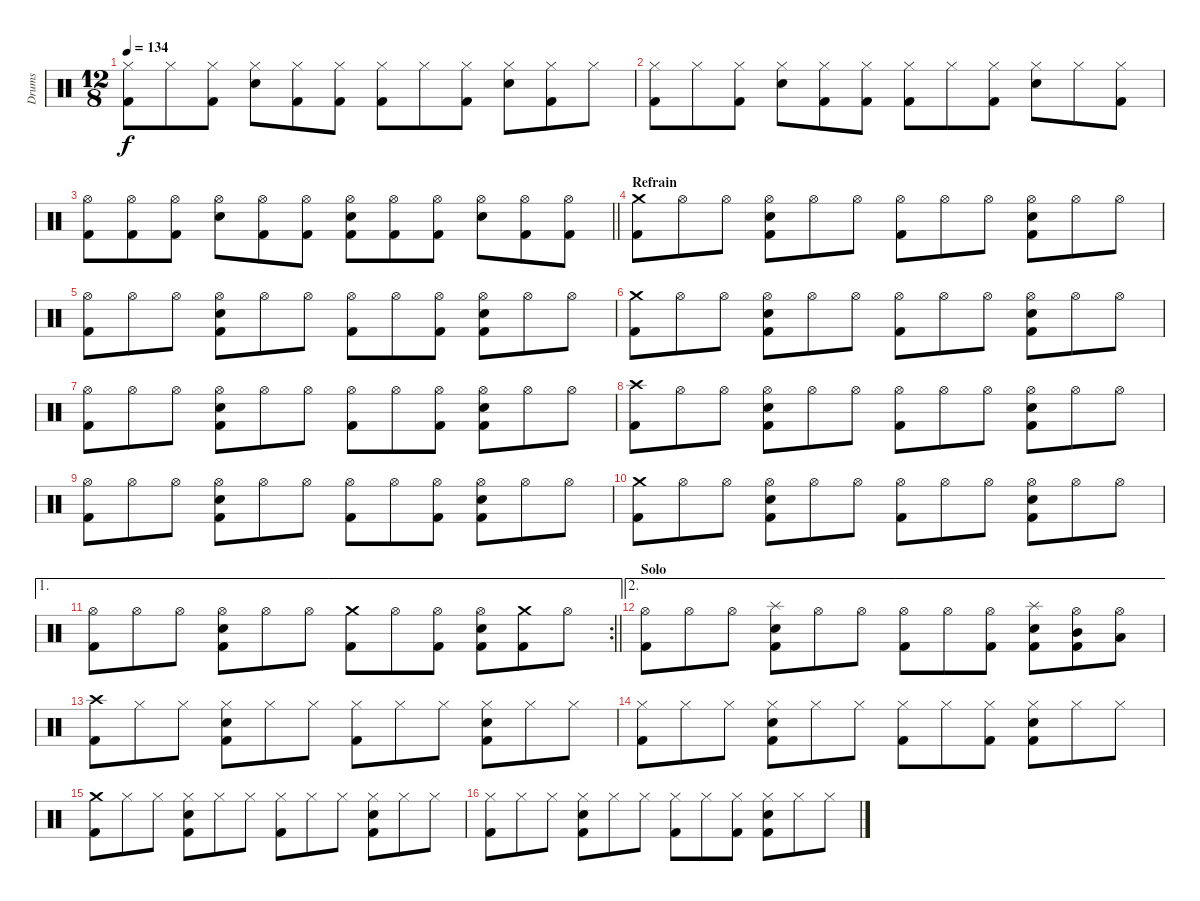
\track ("Drums" "Drums") {instrument percussion}
\staff {score}
\articulation defaults
\ts (12 8)
\tempo 134
\clef neutral
\ks c
("Hi-Hat (closed)" "Kick (hit) 2").8{dy f} "Hi-Hat (closed)".8 ("Hi-Hat (closed)" "Kick (hit) 2").8 ("Hi-Hat (closed)" "Snare (hit) 2").8 ("Hi-Hat (closed)" "Kick (hit) 2").8 ("Hi-Hat (closed)" "Kick (hit) 2").8 ("Hi-Hat (closed)" "Kick (hit) 2").8 "Hi-Hat (closed)".8 ("Hi-Hat (closed)" "Kick (hit) 2").8 ("Hi-Hat (closed)" "Snare (hit) 2").8 ("Hi-Hat (closed)" "Kick (hit) 2").8 "Hi-Hat (closed)".8 |
("Hi-Hat (closed)" "Kick (hit) 2").8 "Hi-Hat (closed)".8 ("Hi-Hat (closed)" "Kick (hit) 2").8 ("Hi-Hat (closed)" "Snare (hit) 2").8 ("Hi-Hat (closed)" "Kick (hit) 2").8 ("Hi-Hat (closed)" "Kick (hit) 2").8 ("Hi-Hat (closed)" "Kick (hit) 2").8 "Hi-Hat (closed)".8 ("Hi-Hat (closed)" "Kick (hit) 2").8 ("Hi-Hat (closed)" "Snare (hit) 2").8 "Hi-Hat (closed)".8 ("Hi-Hat (closed)" "Kick (hit) 2").8 |
\barLineRight lightlight
("Hi-Hat (open)" "Kick (hit) 2").8 ("Hi-Hat (open)" "Kick (hit) 2").8 ("Hi-Hat (open)" "Kick (hit) 2").8 ("Hi-Hat (open)" "Snare (hit) 2").8 ("Hi-Hat (open)" "Kick (hit) 2").8 ("Hi-Hat (open)" "Kick (hit) 2").8 ("Hi-Hat (open)" "Snare (hit) 2" "Kick (hit) 2").8 ("Hi-Hat (open)" "Kick (hit) 2").8 ("Hi-Hat (open)" "Kick (hit) 2").8 ("Hi-Hat (open)" "Snare (hit) 2").8 ("Hi-Hat (open)" "Kick (hit) 2").8 ("Hi-Hat (open)" "Kick (hit) 2").8 |
\section ("" "Refrain")
("Crash medium (hit)" "Kick (hit) 2").8 "Hi-Hat (open)".8 "Hi-Hat (open)".8 ("Hi-Hat (open)" "Snare (hit) 2" "Kick (hit) 2").8 "Hi-Hat (open)".8 "Hi-Hat (open)".8 ("Hi-Hat (open)" "Kick (hit) 2").8 "Hi-Hat (open)".8 "Hi-Hat (open)".8 ("Hi-Hat (open)" "Snare (hit) 2" "Kick (hit) 2").8 "Hi-Hat (open)".8 "Hi-Hat (open)".8 |
("Hi-Hat (open)" "Kick (hit) 2").8 "Hi-Hat (open)".8 "Hi-Hat (open)".8 ("Hi-Hat (open)" "Snare (hit) 2" "Kick (hit) 2").8 "Hi-Hat (open)".8 "Hi-Hat (open)".8 ("Hi-Hat (open)" "Kick (hit) 2").8 "Hi-Hat (open)".8 ("Hi-Hat (open)" "Kick (hit) 2").8 ("Hi-Hat (open)" "Snare (hit) 2" "Kick (hit) 2").8 "Hi-Hat (open)".8 "Hi-Hat (open)".8 |
("Crash medium (hit)" "Kick (hit) 2").8 "Hi-Hat (open)".8 "Hi-Hat (open)".8 ("Hi-Hat (open)" "Snare (hit) 2" "Kick (hit) 2").8 "Hi-Hat (open)".8 "Hi-Hat (open)".8 ("Hi-Hat (open)" "Kick (hit) 2").8 "Hi-Hat (open)".8 "Hi-Hat (open)".8 ("Hi-Hat (open)" "Snare (hit) 2" "Kick (hit) 2").8 "Hi-Hat (open)".8 "Hi-Hat (open)".8 |
("Hi-Hat (open)" "Kick (hit) 2").8 "Hi-Hat (open)".8 "Hi-Hat (open)".8 ("Hi-Hat (open)" "Snare (hit) 2" "Kick (hit) 2").8 "Hi-Hat (open)".8 "Hi-Hat (open)".8 ("Hi-Hat (open)" "Kick (hit) 2").8 "Hi-Hat (open)".8 ("Hi-Hat (open)" "Kick (hit) 2").8 ("Hi-Hat (open)" "Snare (hit) 2" "Kick (hit) 2").8 "Hi-Hat (open)".8 "Hi-Hat (open)".8 |
("Crash high (hit)" "Kick (hit) 2").8 "Hi-Hat (open)".8 "Hi-Hat (open)".8 ("Hi-Hat (open)" "Snare (hit) 2" "Kick (hit) 2").8 "Hi-Hat (open)".8 "Hi-Hat (open)".8 ("Hi-Hat (open)" "Kick (hit) 2").8 "Hi-Hat (open)".8 "Hi-Hat (open)".8 ("Hi-Hat (open)" "Snare (hit) 2" "Kick (hit) 2").8 "Hi-Hat (open)".8 "Hi-Hat (open)".8 |
("Hi-Hat (open)" "Kick (hit) 2").8 "Hi-Hat (open)".8 "Hi-Hat (open)".8 ("Hi-Hat (open)" "Snare (hit) 2" "Kick (hit) 2").8 "Hi-Hat (open)".8 "Hi-Hat (open)".8 ("Hi-Hat (open)" "Kick (hit) 2").8 "Hi-Hat (open)".8 ("Hi-Hat (open)" "Kick (hit) 2").8 ("Hi-Hat (open)" "Snare (hit) 2" "Kick (hit) 2").8 "Hi-Hat (open)".8 "Hi-Hat (open)".8 |
("Crash medium (hit)" "Kick (hit) 2").8 "Hi-Hat (open)".8 "Hi-Hat (open)".8 ("Hi-Hat (open)" "Snare (hit) 2" "Kick (hit) 2").8 "Hi-Hat (open)".8 "Hi-Hat (open)".8 ("Hi-Hat (open)" "Kick (hit) 2").8 "Hi-Hat (open)".8 "Hi-Hat (open)".8 ("Hi-Hat (open)" "Snare (hit) 2" "Kick (hit) 2").8 "Hi-Hat (open)".8 "Hi-Hat (open)".8 |
\ae 1
\rc 2
\barLineRight lightlight
("Hi-Hat (open)" "Kick (hit) 2").8 "Hi-Hat (open)".8 "Hi-Hat (open)".8 ("Hi-Hat (open)" "Snare (hit) 2" "Kick (hit) 2").8 "Hi-Hat (open)".8 "Hi-Hat (open)".8 ("Crash medium (hit)" "Kick (hit) 2").8 "Hi-Hat (open)".8 ("Hi-Hat (open)" "Kick (hit) 2").8 ("Hi-Hat (open)" "Snare (hit) 2" "Kick (hit) 2").8 ("Crash medium (hit)" "Kick (hit) 2").8 "Hi-Hat (open)".8 |
\ae 2
\section ("" "Solo")
("Hi-Hat (open)" "Kick (hit) 2").8 "Hi-Hat (open)".8 "Hi-Hat (open)".8 ("Splash (hit)" "Snare (hit) 2" "Kick (hit) 2").8 "Hi-Hat (open)".8 "Hi-Hat (open)".8 ("Hi-Hat (open)" "Kick (hit) 2").8 "Hi-Hat (open)".8 ("Hi-Hat (open)" "Kick (hit) 2").8 ("Splash (hit)" "Snare (hit) 2" "Kick (hit) 2").8 ("Hi-Hat (open)" "Mid Tom (hit)" "Kick (hit) 2").8 ("Hi-Hat (open)" "Low Tom (hit)").8 |
("Crash high (hit)" "Kick (hit) 2").8 "Hi-Hat (closed)".8 "Hi-Hat (closed)".8 ("Hi-Hat (closed)" "Snare (hit) 2" "Kick (hit) 2").8 "Hi-Hat (closed)".8 "Hi-Hat (closed)".8 ("Hi-Hat (closed)" "Kick (hit) 2").8 "Hi-Hat (closed)".8 "Hi-Hat (closed)".8 ("Hi-Hat (closed)" "Snare (hit) 2" "Kick (hit) 2").8 "Hi-Hat (closed)".8 "Hi-Hat (closed)".8 |
("Hi-Hat (closed)" "Kick (hit) 2").8 "Hi-Hat (closed)".8 "Hi-Hat (closed)".8 ("Hi-Hat (closed)" "Snare (hit) 2" "Kick (hit) 2").8 "Hi-Hat (closed)".8 "Hi-Hat (closed)".8 ("Hi-Hat (closed)" "Kick (hit) 2").8 "Hi-Hat (closed)".8 ("Hi-Hat (closed)" "Kick (hit) 2").8 ("Hi-Hat (closed)" "Snare (hit) 2" "Kick (hit) 2").8 "Hi-Hat (closed)".8 "Hi-Hat (closed)".8 |
("Crash medium (hit)" "Kick (hit) 2").8 "Hi-Hat (closed)".8 "Hi-Hat (closed)".8 ("Hi-Hat (closed)" "Snare (hit) 2" "Kick (hit) 2").8 "Hi-Hat (closed)".8 "Hi-Hat (closed)".8 ("Hi-Hat (closed)" "Kick (hit) 2").8 "Hi-Hat (closed)".8 "Hi-Hat (closed)".8 ("Hi-Hat (closed)" "Snare (hit) 2" "Kick (hit) 2").8 "Hi-Hat (closed)".8 "Hi-Hat (closed)".8 |
("Hi-Hat (closed)" "Kick (hit) 2").8 "Hi-Hat (closed)".8 "Hi-Hat (closed)".8 ("Hi-Hat (closed)" "Snare (hit) 2" "Kick (hit) 2").8 "Hi-Hat (closed)".8 "Hi-Hat (closed)".8 ("Hi-Hat (closed)" "Kick (hit) 2").8 "Hi-Hat (closed)".8 ("Hi-Hat (closed)" "Kick (hit) 2").8 ("Hi-Hat (closed)" "Snare (hit) 2" "Kick (hit) 2").8 "Hi-Hat (closed)".8 "Hi-Hat (closed)".8
